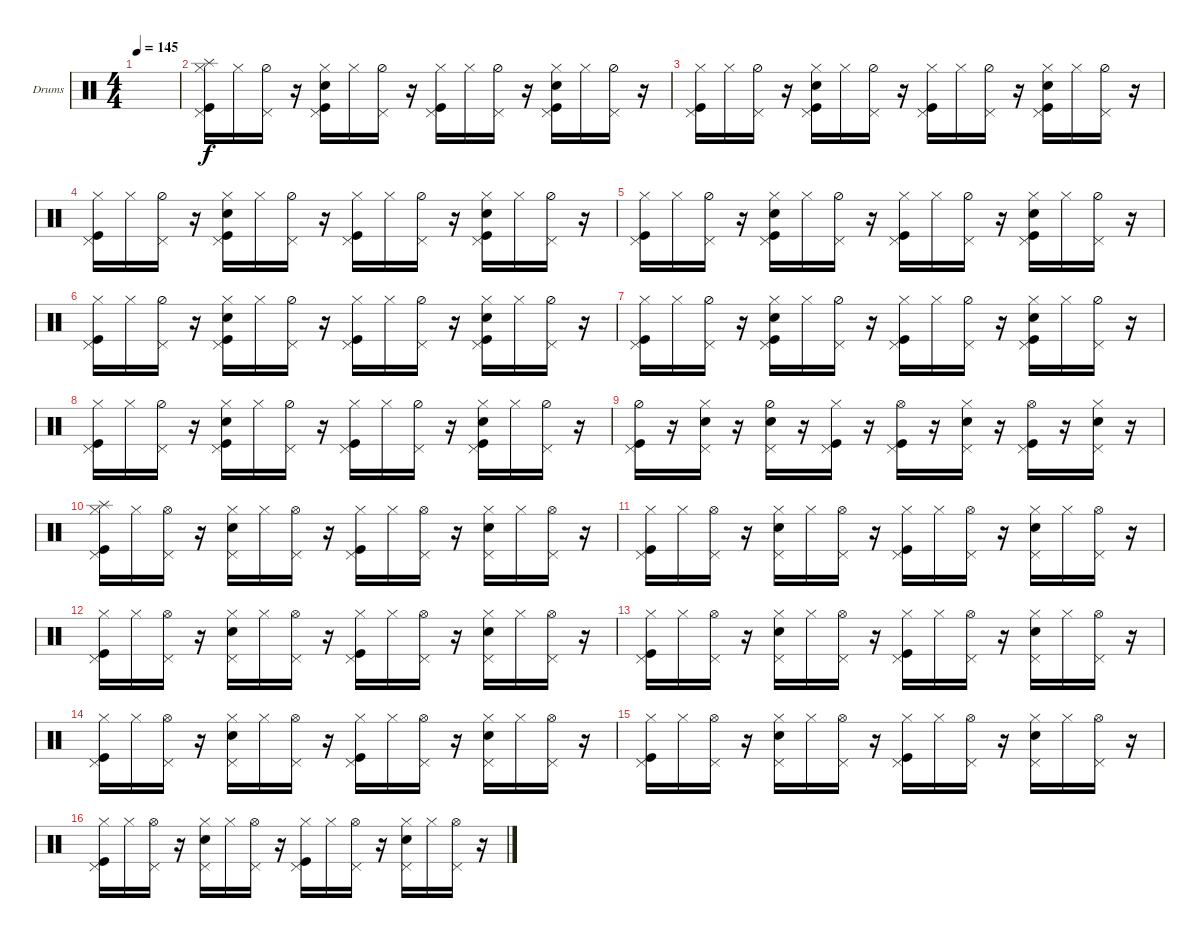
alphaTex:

\bracketExtendMode groupsimilarinstruments
\firstSystemTrackNameOrientation horizontal
\otherSystemsTrackNameOrientation horizontal
\track ("Drumkit" "Drums") {solo instrument percussion}
\staff {score}
\articulation defaults
\ts (4 4)
\tempo 145
\clef neutral
\ks c
|
("Hi-Hat (closed)" "Pedal Hi-Hat (hit)" "Kick (hit)" "Splash (hit)").16 "Hi-Hat (closed)".16 ("Hi-Hat (half)" "Pedal Hi-Hat (hit)").16 r.16 ("Snare (hit) 2" "Pedal Hi-Hat (hit)" "Kick (hit)" "Hi-Hat (closed)").16 "Hi-Hat (closed)".16 ("Hi-Hat (half)" "Pedal Hi-Hat (hit)").16 r.16 ("Kick (hit)" "Hi-Hat (closed)" "Pedal Hi-Hat (hit)").16 "Hi-Hat (closed)".16 ("Hi-Hat (half)" "Pedal Hi-Hat (hit)").16 r.16 ("Snare (hit) 2" "Pedal Hi-Hat (hit)" "Kick (hit)" "Hi-Hat (closed)").16 "Hi-Hat (closed)".16 ("Hi-Hat (half)" "Pedal Hi-Hat (hit)").16 r.16 |
("Kick (hit)" "Hi-Hat (closed)" "Pedal Hi-Hat (hit)").16 "Hi-Hat (closed)".16 ("Hi-Hat (half)" "Pedal Hi-Hat (hit)").16 r.16 ("Snare (hit) 2" "Pedal Hi-Hat (hit)" "Kick (hit)" "Hi-Hat (closed)").16 "Hi-Hat (closed)".16 ("Hi-Hat (half)" "Pedal Hi-Hat (hit)").16 r.16 ("Kick (hit)" "Hi-Hat (closed)" "Pedal Hi-Hat (hit)").16 "Hi-Hat (closed)".16 ("Hi-Hat (half)" "Pedal Hi-Hat (hit)").16 r.16 ("Snare (hit) 2" "Pedal Hi-Hat (hit)" "Kick (hit)" "Hi-Hat (closed)").16 "Hi-Hat (closed)".16 ("Hi-Hat (half)" "Pedal Hi-Hat (hit)").16 r.16 |
("Kick (hit)" "Hi-Hat (closed)" "Pedal Hi-Hat (hit)").16 "Hi-Hat (closed)".16 ("Hi-Hat (half)" "Pedal Hi-Hat (hit)").16 r.16 ("Snare (hit) 2" "Pedal Hi-Hat (hit)" "Kick (hit)" "Hi-Hat (closed)").16 "Hi-Hat (closed)".16 ("Hi-Hat (half)" "Pedal Hi-Hat (hit)").16 r.16 ("Kick (hit)" "Hi-Hat (closed)" "Pedal Hi-Hat (hit)").16 "Hi-Hat (closed)".16 ("Hi-Hat (half)" "Pedal Hi-Hat (hit)").16 r.16 ("Snare (hit) 2" "Pedal Hi-Hat (hit)" "Kick (hit)" "Hi-Hat (closed)").16 "Hi-Hat (closed)".16 ("Hi-Hat (half)" "Pedal Hi-Hat (hit)").16 r.16 |
("Kick (hit)" "Hi-Hat (closed)" "Pedal Hi-Hat (hit)").16 "Hi-Hat (closed)".16 ("Hi-Hat (half)" "Pedal Hi-Hat (hit)").16 r.16 ("Snare (hit) 2" "Pedal Hi-Hat (hit)" "Kick (hit)" "Hi-Hat (closed)").16 "Hi-Hat (closed)".16 ("Hi-Hat (half)" "Pedal Hi-Hat (hit)").16 r.16 ("Kick (hit)" "Hi-Hat (closed)" "Pedal Hi-Hat (hit)").16 "Hi-Hat (closed)".16 ("Hi-Hat (half)" "Pedal Hi-Hat (hit)").16 r.16 ("Snare (hit) 2" "Pedal Hi-Hat (hit)" "Kick (hit)" "Hi-Hat (closed)").16 "Hi-Hat (closed)".16 ("Hi-Hat (half)" "Pedal Hi-Hat (hit)").16 r.16 |
("Kick (hit)" "Hi-Hat (closed)" "Pedal Hi-Hat (hit)").16 "Hi-Hat (closed)".16 ("Hi-Hat (half)" "Pedal Hi-Hat (hit)").16 r.16 ("Snare (hit) 2" "Pedal Hi-Hat (hit)" "Kick (hit)" "Hi-Hat (closed)").16 "Hi-Hat (closed)".16 ("Hi-Hat (half)" "Pedal Hi-Hat (hit)").16 r.16 ("Kick (hit)" "Hi-Hat (closed)" "Pedal Hi-Hat (hit)").16 "Hi-Hat (closed)".16 ("Hi-Hat (half)" "Pedal Hi-Hat (hit)").16 r.16 ("Snare (hit) 2" "Pedal Hi-Hat (hit)" "Kick (hit)" "Hi-Hat (closed)").16 "Hi-Hat (closed)".16 ("Hi-Hat (half)" "Pedal Hi-Hat (hit)").16 r.16 |
("Kick (hit)" "Hi-Hat (closed)" "Pedal Hi-Hat (hit)").16 "Hi-Hat (closed)".16 ("Hi-Hat (half)" "Pedal Hi-Hat (hit)").16 r.16 ("Snare (hit) 2" "Pedal Hi-Hat (hit)" "Kick (hit)" "Hi-Hat (closed)").16 "Hi-Hat (closed)".16 ("Hi-Hat (half)" "Pedal Hi-Hat (hit)").16 r.16 ("Kick (hit)" "Hi-Hat (closed)" "Pedal Hi-Hat (hit)").16 "Hi-Hat (closed)".16 ("Hi-Hat (half)" "Pedal Hi-Hat (hit)").16 r.16 ("Snare (hit) 2" "Pedal Hi-Hat (hit)" "Kick (hit)" "Hi-Hat (closed)").16 "Hi-Hat (closed)".16 ("Hi-Hat (half)" "Pedal Hi-Hat (hit)").16 r.16 |
("Kick (hit)" "Hi-Hat (closed)" "Pedal Hi-Hat (hit)").16 "Hi-Hat (closed)".16 ("Hi-Hat (half)" "Pedal Hi-Hat (hit)").16 r.16 ("Snare (hit) 2" "Pedal Hi-Hat (hit)" "Kick (hit)" "Hi-Hat (closed)").16 "Hi-Hat (closed)".16 ("Hi-Hat (half)" "Pedal Hi-Hat (hit)").16 r.16 ("Kick (hit)" "Hi-Hat (closed)" "Pedal Hi-Hat (hit)").16 "Hi-Hat (closed)".16 ("Hi-Hat (half)" "Pedal Hi-Hat (hit)").16 r.16 ("Snare (hit) 2" "Pedal Hi-Hat (hit)" "Kick (hit)" "Hi-Hat (closed)").16 "Hi-Hat (closed)".16 ("Hi-Hat (half)" "Pedal Hi-Hat (hit)").16 r.16 |
("Kick (hit)" "Hi-Hat (half)" "Pedal Hi-Hat (hit)").16 r.16 ("Hi-Hat (closed)" "Snare (hit) 2" "Pedal Hi-Hat (hit)").16 r.16 ("Snare (hit) 2" "Hi-Hat (half)" "Pedal Hi-Hat (hit)").16 r.16 ("Hi-Hat (closed)" "Pedal Hi-Hat (hit)" "Kick (hit)").16 r.16 ("Kick (hit)" "Hi-Hat (open)" "Pedal Hi-Hat (hit)").16 r.16 ("Hi-Hat (closed)" "Snare (hit) 2" "Pedal Hi-Hat (hit)").16 r.16 ("Hi-Hat (open)" "Kick (hit)" "Pedal Hi-Hat (hit)").16 r.16 ("Hi-Hat (closed)" "Snare (hit) 2" "Pedal Hi-Hat (hit)").16 r.16 |
("Pedal Hi-Hat (hit)" "Kick (hit)" "Hi-Hat (closed)" "Splash (hit)").16 "Hi-Hat (closed)".16 ("Hi-Hat (open)" "Pedal Hi-Hat (hit)").16 r.16 ("Snare (hit) 2" "Pedal Hi-Hat (hit)" "Hi-Hat (closed)").16 "Hi-Hat (closed)".16 ("Hi-Hat (open)" "Pedal Hi-Hat (hit)").16 r.16 ("Kick (hit)" "Hi-Hat (closed)" "Pedal Hi-Hat (hit)").16 "Hi-Hat (closed)".16 ("Hi-Hat (open)" "Pedal Hi-Hat (hit)").16 r.16 ("Snare (hit) 2" "Pedal Hi-Hat (hit)" "Hi-Hat (closed)").16 "Hi-Hat (closed)".16 ("Hi-Hat (open)" "Pedal Hi-Hat (hit)").16 r.16 |
("Kick (hit)" "Hi-Hat (closed)" "Pedal Hi-Hat (hit)").16 "Hi-Hat (closed)".16 ("Hi-Hat (open)" "Pedal Hi-Hat (hit)").16 r.16 ("Snare (hit) 2" "Pedal Hi-Hat (hit)" "Hi-Hat (closed)").16 "Hi-Hat (closed)".16 ("Hi-Hat (open)" "Pedal Hi-Hat (hit)").16 r.16 ("Kick (hit)" "Hi-Hat (closed)" "Pedal Hi-Hat (hit)").16 "Hi-Hat (closed)".16 ("Hi-Hat (open)" "Pedal Hi-Hat (hit)").16 r.16 ("Snare (hit) 2" "Pedal Hi-Hat (hit)" "Hi-Hat (closed)").16 "Hi-Hat (closed)".16 ("Hi-Hat (open)" "Pedal Hi-Hat (hit)").16 r.16 |
("Kick (hit)" "Hi-Hat (closed)" "Pedal Hi-Hat (hit)").16 "Hi-Hat (closed)".16 ("Hi-Hat (open)" "Pedal Hi-Hat (hit)").16 r.16 ("Snare (hit) 2" "Pedal Hi-Hat (hit)" "Hi-Hat (closed)").16 "Hi-Hat (closed)".16 ("Hi-Hat (open)" "Pedal Hi-Hat (hit)").16 r.16 ("Kick (hit)" "Hi-Hat (closed)" "Pedal Hi-Hat (hit)").16 "Hi-Hat (closed)".16 ("Hi-Hat (open)" "Pedal Hi-Hat (hit)").16 r.16 ("Snare (hit) 2" "Pedal Hi-Hat (hit)" "Hi-Hat (closed)").16 "Hi-Hat (closed)".16 ("Hi-Hat (open)" "Pedal Hi-Hat (hit)").16 r.16 |
("Kick (hit)" "Hi-Hat (closed)" "Pedal Hi-Hat (hit)").16 "Hi-Hat (closed)".16 ("Hi-Hat (open)" "Pedal Hi-Hat (hit)").16 r.16 ("Snare (hit) 2" "Pedal Hi-Hat (hit)" "Hi-Hat (closed)").16 "Hi-Hat (closed)".16 ("Hi-Hat (open)" "Pedal Hi-Hat (hit)").16 r.16 ("Kick (hit)" "Hi-Hat (closed)" "Pedal Hi-Hat (hit)").16 "Hi-Hat (closed)".16 ("Hi-Hat (open)" "Pedal Hi-Hat (hit)").16 r.16 ("Snare (hit) 2" "Pedal Hi-Hat (hit)" "Hi-Hat (closed)").16 "Hi-Hat (closed)".16 ("Hi-Hat (open)" "Pedal Hi-Hat (hit)").16 r.16 |
("Kick (hit)" "Hi-Hat (closed)" "Pedal Hi-Hat (hit)").16 "Hi-Hat (closed)".16 ("Pedal Hi-Hat (hit)" "Hi-Hat (open)").16 r.16 ("Snare (hit) 2" "Pedal Hi-Hat (hit)" "Hi-Hat (closed)").16 "Hi-Hat (closed)".16 ("Hi-Hat (open)" "Pedal Hi-Hat (hit)").16 r.16 ("Kick (hit)" "Hi-Hat (closed)" "Pedal Hi-Hat (hit)").16 "Hi-Hat (closed)".16 ("Hi-Hat (open)" "Pedal Hi-Hat (hit)").16 r.16 ("Snare (hit) 2" "Pedal Hi-Hat (hit)" "Hi-Hat (closed)").16 "Hi-Hat (closed)".16 ("Hi-Hat (open)" "Pedal Hi-Hat (hit)").16 r.16 |
("Kick (hit)" "Hi-Hat (closed)" "Pedal Hi-Hat (hit)").16 "Hi-Hat (closed)".16 ("Hi-Hat (open)" "Pedal Hi-Hat (hit)").16 r.16 ("Snare (hit) 2" "Pedal Hi-Hat (hit)" "Hi-Hat (closed)").16 "Hi-Hat (closed)".16 ("Hi-Hat (open)" "Pedal Hi-Hat (hit)").16 r.16 ("Kick (hit)" "Hi-Hat (closed)" "Pedal Hi-Hat (hit)").16 "Hi-Hat (closed)".16 ("Hi-Hat (open)" "Pedal Hi-Hat (hit)").16 r.16 ("Snare (hit) 2" "Pedal Hi-Hat (hit)" "Hi-Hat (closed)").16 "Hi-Hat (closed)".16 ("Hi-Hat (open)" "Pedal Hi-Hat (hit)").16 r.16 |
("Kick (hit)" "Hi-Hat (closed)" "Pedal Hi-Hat (hit)").16 "Hi-Hat (closed)".16 ("Hi-Hat (open)" "Pedal Hi-Hat (hit)").16 r.16 ("Snare (hit) 2" "Pedal Hi-Hat (hit)" "Hi-Hat (closed)").16 "Hi-Hat (closed)".16 ("Hi-Hat (open)" "Pedal Hi-Hat (hit)").16 r.16 ("Kick (hit)" "Hi-Hat (closed)" "Pedal Hi-Hat (hit)").16 "Hi-Hat (closed)".16 ("Hi-Hat (open)" "Pedal Hi-Hat (hit)").16 r.16 ("Snare (hit) 2" "Pedal Hi-Hat (hit)" "Hi-Hat (closed)").16 "Hi-Hat (closed)".16 ("Hi-Hat (open)" "Pedal Hi-Hat (hit)").16 r.16
